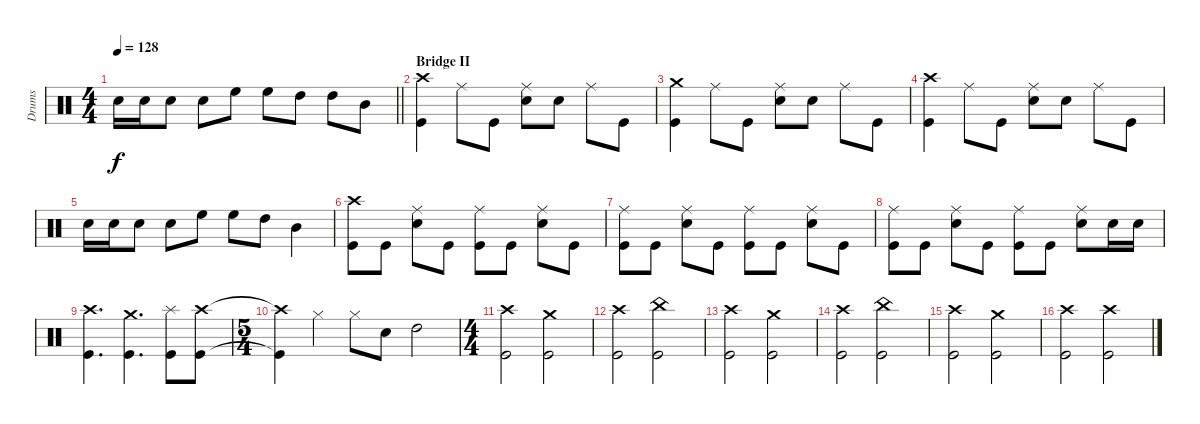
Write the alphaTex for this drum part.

\track ("Drums" "Drums") {instrument percussion}
\staff {score}
\articulation defaults
\ts (4 4)
\tempo 128
\clef neutral
\barLineRight lightlight
\ks c "Snare (hit) 2".16{dy f} "Snare (hit) 2".16 "Snare (hit) 2".8 "Snare (hit) 2".8 "High Floor Tom (hit)".8 "High Floor Tom (hit)".8 "High Tom (hit)".8 "High Tom (hit)".8 "Mid Tom (hit)".8
|
\section ("" "Bridge II")
("Crash high (hit)" "Kick (hit)").4 "Ride (middle)".8 "Kick (hit)".8 ("Snare (hit) 2" "Ride (middle)").8 "Snare (hit) 2".8 "Ride (middle)".8 "Kick (hit)".8 |
("Crash medium (hit)" "Kick (hit)").4 "Ride (middle)".8 "Kick (hit)".8 ("Snare (hit) 2" "Ride (middle)").8 "Snare (hit) 2".8 "Ride (middle)".8 "Kick (hit)".8 |
("Kick (hit)" "Crash high (hit)").4 "Ride (middle)".8 "Kick (hit)".8 ("Snare (hit) 2" "Ride (middle)").8 "Snare (hit) 2".8 "Ride (middle)".8 "Kick (hit)".8 |
"Snare (hit) 2".16 "Snare (hit) 2".16 "Snare (hit) 2".8 "Snare (hit) 2".8 "High Floor Tom (hit)".8 "High Floor Tom (hit)".8 "High Tom (hit)".8 "Mid Tom (hit)".4 |
("Kick (hit)" "Crash high (hit)").8 "Kick (hit)".8 ("Snare (hit) 2" "Ride (middle)").8 "Kick (hit)".8 ("Kick (hit)" "Ride (middle)").8 "Kick (hit)".8 ("Snare (hit) 2" "Ride (middle)").8 "Kick (hit)".8 |
("Kick (hit)" "Ride (middle)").8 "Kick (hit)".8 ("Snare (hit) 2" "Ride (middle)").8 "Kick (hit)".8 ("Kick (hit)" "Ride (middle)").8 "Kick (hit)".8 ("Snare (hit) 2" "Ride (middle)").8 "Kick (hit)".8 |
("Kick (hit)" "Ride (middle)").8 "Kick (hit)".8 ("Snare (hit) 2" "Ride (middle)").8 "Kick (hit)".8 ("Kick (hit)" "Ride (middle)").8 "Kick (hit)".8 ("Snare (hit) 2" "Ride (middle)").8 "Snare (hit) 2".16 "Snare (hit) 2".16 |
("Kick (hit)" "Crash high (hit)").4{d} ("Kick (hit)" "Crash medium (hit)").4{d} ("Kick (hit)" "Splash (hit)").8 ("Kick (hit)" "Crash high (hit)").8 |
\ts (5 4)
("Kick (hit)"{t} "Crash high (hit)"{t}).4 "Hi-Hat (closed)".4 "Hi-Hat (closed)".8 "Snare (hit) 2".8 "High Tom (hit)".2 |
\ts (4 4)
("Kick (hit)" "Crash high (hit)").2 ("Kick (hit)" "Crash medium (hit)").2 |
("Kick (hit)" "Crash high (hit)").2 ("Kick (hit)" "China (hit)").2 |
("Kick (hit)" "Crash high (hit)").2 ("Kick (hit)" "Crash medium (hit)").2 |
("Kick (hit)" "Crash high (hit)").2 ("Kick (hit)" "China (hit)").2 |
("Kick (hit)" "Crash high (hit)").2 ("Kick (hit)" "Crash medium (hit)").2 |
("Kick (hit)" "Crash high (hit)").2 ("Kick (hit)" "Crash high (hit)").2
